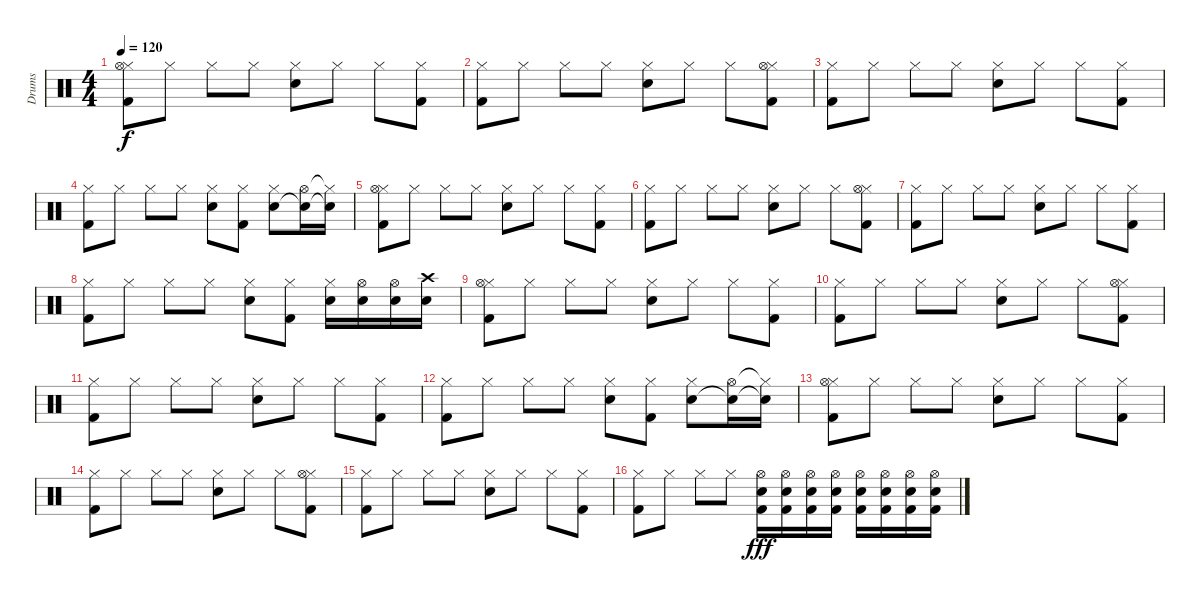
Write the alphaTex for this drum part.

\track ("Drums" "Drums") {instrument percussion}
\staff {score}
\articulation defaults
\ts (4 4)
\tempo 120
\clef neutral
\ks c
("Hi-Hat (closed)" "Hi-Hat (open)" "Kick (hit) 2").8{dy f} "Hi-Hat (closed)".8 "Hi-Hat (closed)".8 "Hi-Hat (closed)".8 ("Hi-Hat (closed)" "Electric Snare (hit)").8 "Hi-Hat (closed)".8 "Hi-Hat (closed)".8 ("Hi-Hat (closed)" "Kick (hit) 2").8 |
("Hi-Hat (closed)" "Kick (hit) 2").8 "Hi-Hat (closed)".8 "Hi-Hat (closed)".8 "Hi-Hat (closed)".8 ("Hi-Hat (closed)" "Electric Snare (hit)").8 "Hi-Hat (closed)".8 "Hi-Hat (closed)".8 ("Hi-Hat (closed)" "Hi-Hat (open)" "Kick (hit) 2").8 |
("Hi-Hat (closed)" "Kick (hit) 2").8 "Hi-Hat (closed)".8 "Hi-Hat (closed)".8 "Hi-Hat (closed)".8 ("Hi-Hat (closed)" "Electric Snare (hit)").8 "Hi-Hat (closed)".8 "Hi-Hat (closed)".8 ("Hi-Hat (closed)" "Kick (hit) 2").8 |
("Hi-Hat (closed)" "Kick (hit) 2").8 "Hi-Hat (closed)".8 "Hi-Hat (closed)".8 "Hi-Hat (closed)".8 ("Hi-Hat (closed)" "Electric Snare (hit)").8 ("Hi-Hat (closed)" "Kick (hit) 2").8 ("Hi-Hat (closed)" "Electric Snare (hit)").8 ("Hi-Hat (open)" "Electric Snare (hit)"{t}).16 ("Hi-Hat (closed)"{t} "Electric Snare (hit)"{t}).16 |
("Hi-Hat (closed)" "Hi-Hat (open)" "Kick (hit) 2").8 "Hi-Hat (closed)".8 "Hi-Hat (closed)".8 "Hi-Hat (closed)".8 ("Hi-Hat (closed)" "Electric Snare (hit)").8 "Hi-Hat (closed)".8 "Hi-Hat (closed)".8 ("Hi-Hat (closed)" "Kick (hit) 2").8 |
("Hi-Hat (closed)" "Kick (hit) 2").8 "Hi-Hat (closed)".8 "Hi-Hat (closed)".8 "Hi-Hat (closed)".8 ("Hi-Hat (closed)" "Electric Snare (hit)").8 "Hi-Hat (closed)".8 "Hi-Hat (closed)".8 ("Hi-Hat (closed)" "Hi-Hat (open)" "Kick (hit) 2").8 |
("Hi-Hat (closed)" "Kick (hit) 2").8 "Hi-Hat (closed)".8 "Hi-Hat (closed)".8 "Hi-Hat (closed)".8 ("Hi-Hat (closed)" "Electric Snare (hit)").8 "Hi-Hat (closed)".8 "Hi-Hat (closed)".8 ("Hi-Hat (closed)" "Kick (hit) 2").8 |
("Hi-Hat (closed)" "Kick (hit) 2").8 "Hi-Hat (closed)".8 "Hi-Hat (closed)".8 "Hi-Hat (closed)".8 ("Hi-Hat (closed)" "Electric Snare (hit)").8 ("Hi-Hat (closed)" "Kick (hit) 2").8 ("Hi-Hat (closed)" "Electric Snare (hit)").16 ("Hi-Hat (open)" "Electric Snare (hit)").16 ("Hi-Hat (open)" "Electric Snare (hit)").16 ("Crash high (hit)" "Electric Snare (hit)").16 |
("Hi-Hat (closed)" "Hi-Hat (open)" "Kick (hit) 2").8 "Hi-Hat (closed)".8 "Hi-Hat (closed)".8 "Hi-Hat (closed)".8 ("Hi-Hat (closed)" "Electric Snare (hit)").8 "Hi-Hat (closed)".8 "Hi-Hat (closed)".8 ("Hi-Hat (closed)" "Kick (hit) 2").8 |
("Hi-Hat (closed)" "Kick (hit) 2").8 "Hi-Hat (closed)".8 "Hi-Hat (closed)".8 "Hi-Hat (closed)".8 ("Hi-Hat (closed)" "Electric Snare (hit)").8 "Hi-Hat (closed)".8 "Hi-Hat (closed)".8 ("Hi-Hat (closed)" "Hi-Hat (open)" "Kick (hit) 2").8 |
("Hi-Hat (closed)" "Kick (hit) 2").8 "Hi-Hat (closed)".8 "Hi-Hat (closed)".8 "Hi-Hat (closed)".8 ("Hi-Hat (closed)" "Electric Snare (hit)").8 "Hi-Hat (closed)".8 "Hi-Hat (closed)".8 ("Hi-Hat (closed)" "Kick (hit) 2").8 |
("Hi-Hat (closed)" "Kick (hit) 2").8 "Hi-Hat (closed)".8 "Hi-Hat (closed)".8 "Hi-Hat (closed)".8 ("Hi-Hat (closed)" "Electric Snare (hit)").8 ("Hi-Hat (closed)" "Kick (hit) 2").8 ("Hi-Hat (closed)" "Electric Snare (hit)").8 ("Hi-Hat (open)" "Electric Snare (hit)"{t}).16 ("Hi-Hat (closed)"{t} "Electric Snare (hit)"{t}).16 |
("Hi-Hat (closed)" "Hi-Hat (open)" "Kick (hit) 2").8 "Hi-Hat (closed)".8 "Hi-Hat (closed)".8 "Hi-Hat (closed)".8 ("Hi-Hat (closed)" "Electric Snare (hit)").8 "Hi-Hat (closed)".8 "Hi-Hat (closed)".8 ("Hi-Hat (closed)" "Kick (hit) 2").8 |
("Hi-Hat (closed)" "Kick (hit) 2").8 "Hi-Hat (closed)".8 "Hi-Hat (closed)".8 "Hi-Hat (closed)".8 ("Hi-Hat (closed)" "Electric Snare (hit)").8 "Hi-Hat (closed)".8 "Hi-Hat (closed)".8 ("Hi-Hat (closed)" "Hi-Hat (open)" "Kick (hit) 2").8 |
("Hi-Hat (closed)" "Kick (hit) 2").8 "Hi-Hat (closed)".8 "Hi-Hat (closed)".8 "Hi-Hat (closed)".8 ("Hi-Hat (closed)" "Electric Snare (hit)").8 "Hi-Hat (closed)".8 "Hi-Hat (closed)".8 ("Hi-Hat (closed)" "Kick (hit) 2").8 |
("Hi-Hat (closed)" "Kick (hit) 2").8 "Hi-Hat (closed)".8 "Hi-Hat (closed)".8 "Hi-Hat (closed)".8 ("Hi-Hat (open)" "Kick (hit) 2" "Electric Snare (hit)").16{dy fff} ("Hi-Hat (open)" "Kick (hit) 2" "Electric Snare (hit)").16 ("Hi-Hat (open)" "Kick (hit) 2" "Electric Snare (hit)").16 ("Hi-Hat (open)" "Kick (hit) 2" "Electric Snare (hit)").16 ("Hi-Hat (open)" "Kick (hit) 2" "Electric Snare (hit)").16 ("Hi-Hat (open)" "Kick (hit) 2" "Electric Snare (hit)").16 ("Hi-Hat (open)" "Kick (hit) 2" "Electric Snare (hit)").16 ("Hi-Hat (open)" "Kick (hit) 2" "Electric Snare (hit)").16
